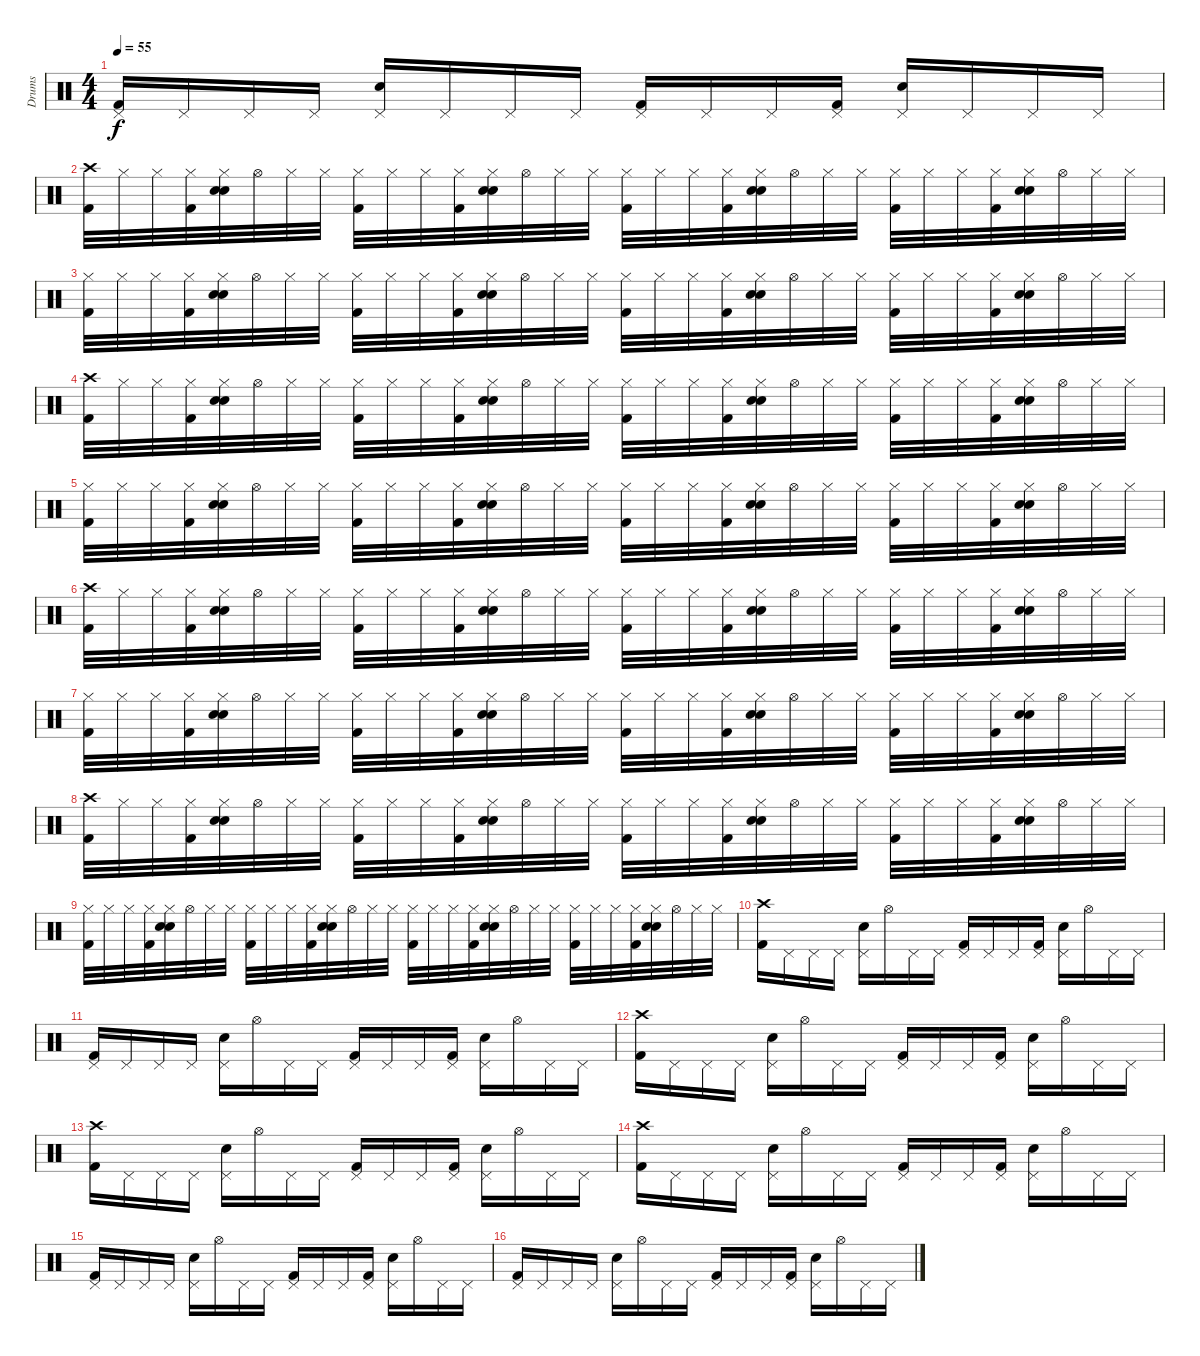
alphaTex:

\track ("Drums" "Drums") {instrument percussion}
\staff {score}
\articulation defaults
\ts (4 4)
\tempo 55
\clef neutral
\ks c
("Pedal Hi-Hat (hit)" "Kick (hit) 2").16{dy f} "Pedal Hi-Hat (hit)".16 "Pedal Hi-Hat (hit)".16 "Pedal Hi-Hat (hit)".16 ("Pedal Hi-Hat (hit)" "Electric Snare (hit)").16 "Pedal Hi-Hat (hit)".16 "Pedal Hi-Hat (hit)".16 "Pedal Hi-Hat (hit)".16 ("Pedal Hi-Hat (hit)" "Kick (hit) 2").16 "Pedal Hi-Hat (hit)".16 "Pedal Hi-Hat (hit)".16 ("Pedal Hi-Hat (hit)" "Kick (hit) 2").16 ("Pedal Hi-Hat (hit)" "Electric Snare (hit)").16 "Pedal Hi-Hat (hit)".16 "Pedal Hi-Hat (hit)".16 "Pedal Hi-Hat (hit)".16 |
("Crash high (hit)" "Kick (hit) 2").32 "Hi-Hat (closed)".32 "Hi-Hat (closed)".32 ("Hi-Hat (closed)" "Kick (hit) 2").32 ("Hi-Hat (closed)" "Snare (hit) 2" "Electric Snare (hit)").32 "Hi-Hat (open)".32 "Hi-Hat (closed)".32 "Hi-Hat (closed)".32 ("Hi-Hat (closed)" "Kick (hit) 2").32 "Hi-Hat (closed)".32 "Hi-Hat (closed)".32 ("Hi-Hat (closed)" "Kick (hit) 2").32 ("Hi-Hat (closed)" "Snare (hit) 2" "Electric Snare (hit)").32 "Hi-Hat (open)".32 "Hi-Hat (closed)".32 "Hi-Hat (closed)".32 ("Hi-Hat (closed)" "Kick (hit) 2").32 "Hi-Hat (closed)".32 "Hi-Hat (closed)".32 ("Hi-Hat (closed)" "Kick (hit) 2").32 ("Hi-Hat (closed)" "Snare (hit) 2" "Electric Snare (hit)").32 "Hi-Hat (open)".32 "Hi-Hat (closed)".32 "Hi-Hat (closed)".32 ("Hi-Hat (closed)" "Kick (hit) 2").32 "Hi-Hat (closed)".32 "Hi-Hat (closed)".32 ("Hi-Hat (closed)" "Kick (hit) 2").32 ("Hi-Hat (closed)" "Snare (hit) 2" "Electric Snare (hit)").32 "Hi-Hat (open)".32 "Hi-Hat (closed)".32 "Hi-Hat (closed)".32 |
("Hi-Hat (closed)" "Kick (hit) 2").32 "Hi-Hat (closed)".32 "Hi-Hat (closed)".32 ("Hi-Hat (closed)" "Kick (hit) 2").32 ("Hi-Hat (closed)" "Snare (hit) 2" "Electric Snare (hit)").32 "Hi-Hat (open)".32 "Hi-Hat (closed)".32 "Hi-Hat (closed)".32 ("Hi-Hat (closed)" "Kick (hit) 2").32 "Hi-Hat (closed)".32 "Hi-Hat (closed)".32 ("Hi-Hat (closed)" "Kick (hit) 2").32 ("Hi-Hat (closed)" "Snare (hit) 2" "Electric Snare (hit)").32 "Hi-Hat (open)".32 "Hi-Hat (closed)".32 "Hi-Hat (closed)".32 ("Hi-Hat (closed)" "Kick (hit) 2").32 "Hi-Hat (closed)".32 "Hi-Hat (closed)".32 ("Hi-Hat (closed)" "Kick (hit) 2").32 ("Hi-Hat (closed)" "Snare (hit) 2" "Electric Snare (hit)").32 "Hi-Hat (open)".32 "Hi-Hat (closed)".32 "Hi-Hat (closed)".32 ("Hi-Hat (closed)" "Kick (hit) 2").32 "Hi-Hat (closed)".32 "Hi-Hat (closed)".32 ("Hi-Hat (closed)" "Kick (hit) 2").32 ("Hi-Hat (closed)" "Snare (hit) 2" "Electric Snare (hit)").32 "Hi-Hat (open)".32 "Hi-Hat (closed)".32 "Hi-Hat (closed)".32 |
("Crash high (hit)" "Kick (hit) 2").32 "Hi-Hat (closed)".32 "Hi-Hat (closed)".32 ("Hi-Hat (closed)" "Kick (hit) 2").32 ("Hi-Hat (closed)" "Snare (hit) 2" "Electric Snare (hit)").32 "Hi-Hat (open)".32 "Hi-Hat (closed)".32 "Hi-Hat (closed)".32 ("Hi-Hat (closed)" "Kick (hit) 2").32 "Hi-Hat (closed)".32 "Hi-Hat (closed)".32 ("Hi-Hat (closed)" "Kick (hit) 2").32 ("Hi-Hat (closed)" "Snare (hit) 2" "Electric Snare (hit)").32 "Hi-Hat (open)".32 "Hi-Hat (closed)".32 "Hi-Hat (closed)".32 ("Hi-Hat (closed)" "Kick (hit) 2").32 "Hi-Hat (closed)".32 "Hi-Hat (closed)".32 ("Hi-Hat (closed)" "Kick (hit) 2").32 ("Hi-Hat (closed)" "Snare (hit) 2" "Electric Snare (hit)").32 "Hi-Hat (open)".32 "Hi-Hat (closed)".32 "Hi-Hat (closed)".32 ("Hi-Hat (closed)" "Kick (hit) 2").32 "Hi-Hat (closed)".32 "Hi-Hat (closed)".32 ("Hi-Hat (closed)" "Kick (hit) 2").32 ("Hi-Hat (closed)" "Snare (hit) 2" "Electric Snare (hit)").32 "Hi-Hat (open)".32 "Hi-Hat (closed)".32 "Hi-Hat (closed)".32 |
("Hi-Hat (closed)" "Kick (hit) 2").32 "Hi-Hat (closed)".32 "Hi-Hat (closed)".32 ("Hi-Hat (closed)" "Kick (hit) 2").32 ("Hi-Hat (closed)" "Snare (hit) 2" "Electric Snare (hit)").32 "Hi-Hat (open)".32 "Hi-Hat (closed)".32 "Hi-Hat (closed)".32 ("Hi-Hat (closed)" "Kick (hit) 2").32 "Hi-Hat (closed)".32 "Hi-Hat (closed)".32 ("Hi-Hat (closed)" "Kick (hit) 2").32 ("Hi-Hat (closed)" "Snare (hit) 2" "Electric Snare (hit)").32 "Hi-Hat (open)".32 "Hi-Hat (closed)".32 "Hi-Hat (closed)".32 ("Hi-Hat (closed)" "Kick (hit) 2").32 "Hi-Hat (closed)".32 "Hi-Hat (closed)".32 ("Hi-Hat (closed)" "Kick (hit) 2").32 ("Hi-Hat (closed)" "Snare (hit) 2" "Electric Snare (hit)").32 "Hi-Hat (open)".32 "Hi-Hat (closed)".32 "Hi-Hat (closed)".32 ("Hi-Hat (closed)" "Kick (hit) 2").32 "Hi-Hat (closed)".32 "Hi-Hat (closed)".32 ("Hi-Hat (closed)" "Kick (hit) 2").32 ("Hi-Hat (closed)" "Snare (hit) 2" "Electric Snare (hit)").32 "Hi-Hat (open)".32 "Hi-Hat (closed)".32 "Hi-Hat (closed)".32 |
("Crash high (hit)" "Kick (hit) 2").32 "Hi-Hat (closed)".32 "Hi-Hat (closed)".32 ("Hi-Hat (closed)" "Kick (hit) 2").32 ("Hi-Hat (closed)" "Snare (hit) 2" "Electric Snare (hit)").32 "Hi-Hat (open)".32 "Hi-Hat (closed)".32 "Hi-Hat (closed)".32 ("Hi-Hat (closed)" "Kick (hit) 2").32 "Hi-Hat (closed)".32 "Hi-Hat (closed)".32 ("Hi-Hat (closed)" "Kick (hit) 2").32 ("Hi-Hat (closed)" "Snare (hit) 2" "Electric Snare (hit)").32 "Hi-Hat (open)".32 "Hi-Hat (closed)".32 "Hi-Hat (closed)".32 ("Hi-Hat (closed)" "Kick (hit) 2").32 "Hi-Hat (closed)".32 "Hi-Hat (closed)".32 ("Hi-Hat (closed)" "Kick (hit) 2").32 ("Hi-Hat (closed)" "Snare (hit) 2" "Electric Snare (hit)").32 "Hi-Hat (open)".32 "Hi-Hat (closed)".32 "Hi-Hat (closed)".32 ("Hi-Hat (closed)" "Kick (hit) 2").32 "Hi-Hat (closed)".32 "Hi-Hat (closed)".32 ("Hi-Hat (closed)" "Kick (hit) 2").32 ("Hi-Hat (closed)" "Snare (hit) 2" "Electric Snare (hit)").32 "Hi-Hat (open)".32 "Hi-Hat (closed)".32 "Hi-Hat (closed)".32 |
("Hi-Hat (closed)" "Kick (hit) 2").32 "Hi-Hat (closed)".32 "Hi-Hat (closed)".32 ("Hi-Hat (closed)" "Kick (hit) 2").32 ("Hi-Hat (closed)" "Snare (hit) 2" "Electric Snare (hit)").32 "Hi-Hat (open)".32 "Hi-Hat (closed)".32 "Hi-Hat (closed)".32 ("Hi-Hat (closed)" "Kick (hit) 2").32 "Hi-Hat (closed)".32 "Hi-Hat (closed)".32 ("Hi-Hat (closed)" "Kick (hit) 2").32 ("Hi-Hat (closed)" "Snare (hit) 2" "Electric Snare (hit)").32 "Hi-Hat (open)".32 "Hi-Hat (closed)".32 "Hi-Hat (closed)".32 ("Hi-Hat (closed)" "Kick (hit) 2").32 "Hi-Hat (closed)".32 "Hi-Hat (closed)".32 ("Hi-Hat (closed)" "Kick (hit) 2").32 ("Hi-Hat (closed)" "Snare (hit) 2" "Electric Snare (hit)").32 "Hi-Hat (open)".32 "Hi-Hat (closed)".32 "Hi-Hat (closed)".32 ("Hi-Hat (closed)" "Kick (hit) 2").32 "Hi-Hat (closed)".32 "Hi-Hat (closed)".32 ("Hi-Hat (closed)" "Kick (hit) 2").32 ("Hi-Hat (closed)" "Snare (hit) 2" "Electric Snare (hit)").32 "Hi-Hat (open)".32 "Hi-Hat (closed)".32 "Hi-Hat (closed)".32 |
("Crash high (hit)" "Kick (hit) 2").32 "Hi-Hat (closed)".32 "Hi-Hat (closed)".32 ("Hi-Hat (closed)" "Kick (hit) 2").32 ("Hi-Hat (closed)" "Snare (hit) 2" "Electric Snare (hit)").32 "Hi-Hat (open)".32 "Hi-Hat (closed)".32 "Hi-Hat (closed)".32 ("Hi-Hat (closed)" "Kick (hit) 2").32 "Hi-Hat (closed)".32 "Hi-Hat (closed)".32 ("Hi-Hat (closed)" "Kick (hit) 2").32 ("Hi-Hat (closed)" "Snare (hit) 2" "Electric Snare (hit)").32 "Hi-Hat (open)".32 "Hi-Hat (closed)".32 "Hi-Hat (closed)".32 ("Hi-Hat (closed)" "Kick (hit) 2").32 "Hi-Hat (closed)".32 "Hi-Hat (closed)".32 ("Hi-Hat (closed)" "Kick (hit) 2").32 ("Hi-Hat (closed)" "Snare (hit) 2" "Electric Snare (hit)").32 "Hi-Hat (open)".32 "Hi-Hat (closed)".32 "Hi-Hat (closed)".32 ("Hi-Hat (closed)" "Kick (hit) 2").32 "Hi-Hat (closed)".32 "Hi-Hat (closed)".32 ("Hi-Hat (closed)" "Kick (hit) 2").32 ("Hi-Hat (closed)" "Snare (hit) 2" "Electric Snare (hit)").32 "Hi-Hat (open)".32 "Hi-Hat (closed)".32 "Hi-Hat (closed)".32 |
("Hi-Hat (closed)" "Kick (hit) 2").32 "Hi-Hat (closed)".32 "Hi-Hat (closed)".32 ("Hi-Hat (closed)" "Kick (hit) 2").32 ("Hi-Hat (closed)" "Snare (hit) 2" "Electric Snare (hit)").32 "Hi-Hat (open)".32 "Hi-Hat (closed)".32 "Hi-Hat (closed)".32 ("Hi-Hat (closed)" "Kick (hit) 2").32 "Hi-Hat (closed)".32 "Hi-Hat (closed)".32 ("Hi-Hat (closed)" "Kick (hit) 2").32 ("Hi-Hat (closed)" "Snare (hit) 2" "Electric Snare (hit)").32 "Hi-Hat (open)".32 "Hi-Hat (closed)".32 "Hi-Hat (closed)".32 ("Hi-Hat (closed)" "Kick (hit) 2").32 "Hi-Hat (closed)".32 "Hi-Hat (closed)".32 ("Hi-Hat (closed)" "Kick (hit) 2").32 ("Hi-Hat (closed)" "Snare (hit) 2" "Electric Snare (hit)").32 "Hi-Hat (open)".32 "Hi-Hat (closed)".32 "Hi-Hat (closed)".32 ("Hi-Hat (closed)" "Kick (hit) 2").32 "Hi-Hat (closed)".32 "Hi-Hat (closed)".32 ("Hi-Hat (closed)" "Kick (hit) 2").32 ("Hi-Hat (closed)" "Snare (hit) 2" "Electric Snare (hit)").32 "Hi-Hat (open)".32 "Hi-Hat (closed)".32 "Hi-Hat (closed)".32 |
("Crash high (hit)" "Kick (hit) 2").16 "Pedal Hi-Hat (hit)".16 "Pedal Hi-Hat (hit)".16 "Pedal Hi-Hat (hit)".16 ("Pedal Hi-Hat (hit)" "Electric Snare (hit)").16 "Hi-Hat (open)".16 "Pedal Hi-Hat (hit)".16 "Pedal Hi-Hat (hit)".16 ("Pedal Hi-Hat (hit)" "Kick (hit) 2").16 "Pedal Hi-Hat (hit)".16 "Pedal Hi-Hat (hit)".16 ("Pedal Hi-Hat (hit)" "Kick (hit) 2").16 ("Pedal Hi-Hat (hit)" "Electric Snare (hit)").16 "Hi-Hat (open)".16 "Pedal Hi-Hat (hit)".16 "Pedal Hi-Hat (hit)".16 |
("Pedal Hi-Hat (hit)" "Kick (hit) 2").16 "Pedal Hi-Hat (hit)".16 "Pedal Hi-Hat (hit)".16 "Pedal Hi-Hat (hit)".16 ("Pedal Hi-Hat (hit)" "Electric Snare (hit)").16 "Hi-Hat (open)".16 "Pedal Hi-Hat (hit)".16 "Pedal Hi-Hat (hit)".16 ("Pedal Hi-Hat (hit)" "Kick (hit) 2").16 "Pedal Hi-Hat (hit)".16 "Pedal Hi-Hat (hit)".16 ("Pedal Hi-Hat (hit)" "Kick (hit) 2").16 ("Pedal Hi-Hat (hit)" "Electric Snare (hit)").16 "Hi-Hat (open)".16 "Pedal Hi-Hat (hit)".16 "Pedal Hi-Hat (hit)".16 |
("Crash high (hit)" "Kick (hit) 2").16 "Pedal Hi-Hat (hit)".16 "Pedal Hi-Hat (hit)".16 "Pedal Hi-Hat (hit)".16 ("Pedal Hi-Hat (hit)" "Electric Snare (hit)").16 "Hi-Hat (open)".16 "Pedal Hi-Hat (hit)".16 "Pedal Hi-Hat (hit)".16 ("Pedal Hi-Hat (hit)" "Kick (hit) 2").16 "Pedal Hi-Hat (hit)".16 "Pedal Hi-Hat (hit)".16 ("Pedal Hi-Hat (hit)" "Kick (hit) 2").16 ("Pedal Hi-Hat (hit)" "Electric Snare (hit)").16 "Hi-Hat (open)".16 "Pedal Hi-Hat (hit)".16 "Pedal Hi-Hat (hit)".16 |
("Crash high (hit)" "Kick (hit) 2").16 "Pedal Hi-Hat (hit)".16 "Pedal Hi-Hat (hit)".16 "Pedal Hi-Hat (hit)".16 ("Pedal Hi-Hat (hit)" "Electric Snare (hit)").16 "Hi-Hat (open)".16 "Pedal Hi-Hat (hit)".16 "Pedal Hi-Hat (hit)".16 ("Pedal Hi-Hat (hit)" "Kick (hit) 2").16 "Pedal Hi-Hat (hit)".16 "Pedal Hi-Hat (hit)".16 ("Pedal Hi-Hat (hit)" "Kick (hit) 2").16 ("Pedal Hi-Hat (hit)" "Electric Snare (hit)").16 "Hi-Hat (open)".16 "Pedal Hi-Hat (hit)".16 "Pedal Hi-Hat (hit)".16 |
("Crash high (hit)" "Kick (hit) 2").16 "Pedal Hi-Hat (hit)".16 "Pedal Hi-Hat (hit)".16 "Pedal Hi-Hat (hit)".16 ("Pedal Hi-Hat (hit)" "Electric Snare (hit)").16 "Hi-Hat (open)".16 "Pedal Hi-Hat (hit)".16 "Pedal Hi-Hat (hit)".16 ("Pedal Hi-Hat (hit)" "Kick (hit) 2").16 "Pedal Hi-Hat (hit)".16 "Pedal Hi-Hat (hit)".16 ("Pedal Hi-Hat (hit)" "Kick (hit) 2").16 ("Pedal Hi-Hat (hit)" "Electric Snare (hit)").16 "Hi-Hat (open)".16 "Pedal Hi-Hat (hit)".16 "Pedal Hi-Hat (hit)".16 |
("Pedal Hi-Hat (hit)" "Kick (hit) 2").16 "Pedal Hi-Hat (hit)".16 "Pedal Hi-Hat (hit)".16 "Pedal Hi-Hat (hit)".16 ("Pedal Hi-Hat (hit)" "Electric Snare (hit)").16 "Hi-Hat (open)".16 "Pedal Hi-Hat (hit)".16 "Pedal Hi-Hat (hit)".16 ("Pedal Hi-Hat (hit)" "Kick (hit) 2").16 "Pedal Hi-Hat (hit)".16 "Pedal Hi-Hat (hit)".16 ("Pedal Hi-Hat (hit)" "Kick (hit) 2").16 ("Pedal Hi-Hat (hit)" "Electric Snare (hit)").16 "Hi-Hat (open)".16 "Pedal Hi-Hat (hit)".16 "Pedal Hi-Hat (hit)".16 |
("Pedal Hi-Hat (hit)" "Kick (hit) 2").16 "Pedal Hi-Hat (hit)".16 "Pedal Hi-Hat (hit)".16 "Pedal Hi-Hat (hit)".16 ("Pedal Hi-Hat (hit)" "Electric Snare (hit)").16 "Hi-Hat (open)".16 "Pedal Hi-Hat (hit)".16 "Pedal Hi-Hat (hit)".16 ("Pedal Hi-Hat (hit)" "Kick (hit) 2").16 "Pedal Hi-Hat (hit)".16 "Pedal Hi-Hat (hit)".16 ("Pedal Hi-Hat (hit)" "Kick (hit) 2").16 ("Pedal Hi-Hat (hit)" "Electric Snare (hit)").16 "Hi-Hat (open)".16 "Pedal Hi-Hat (hit)".16 "Pedal Hi-Hat (hit)".16
